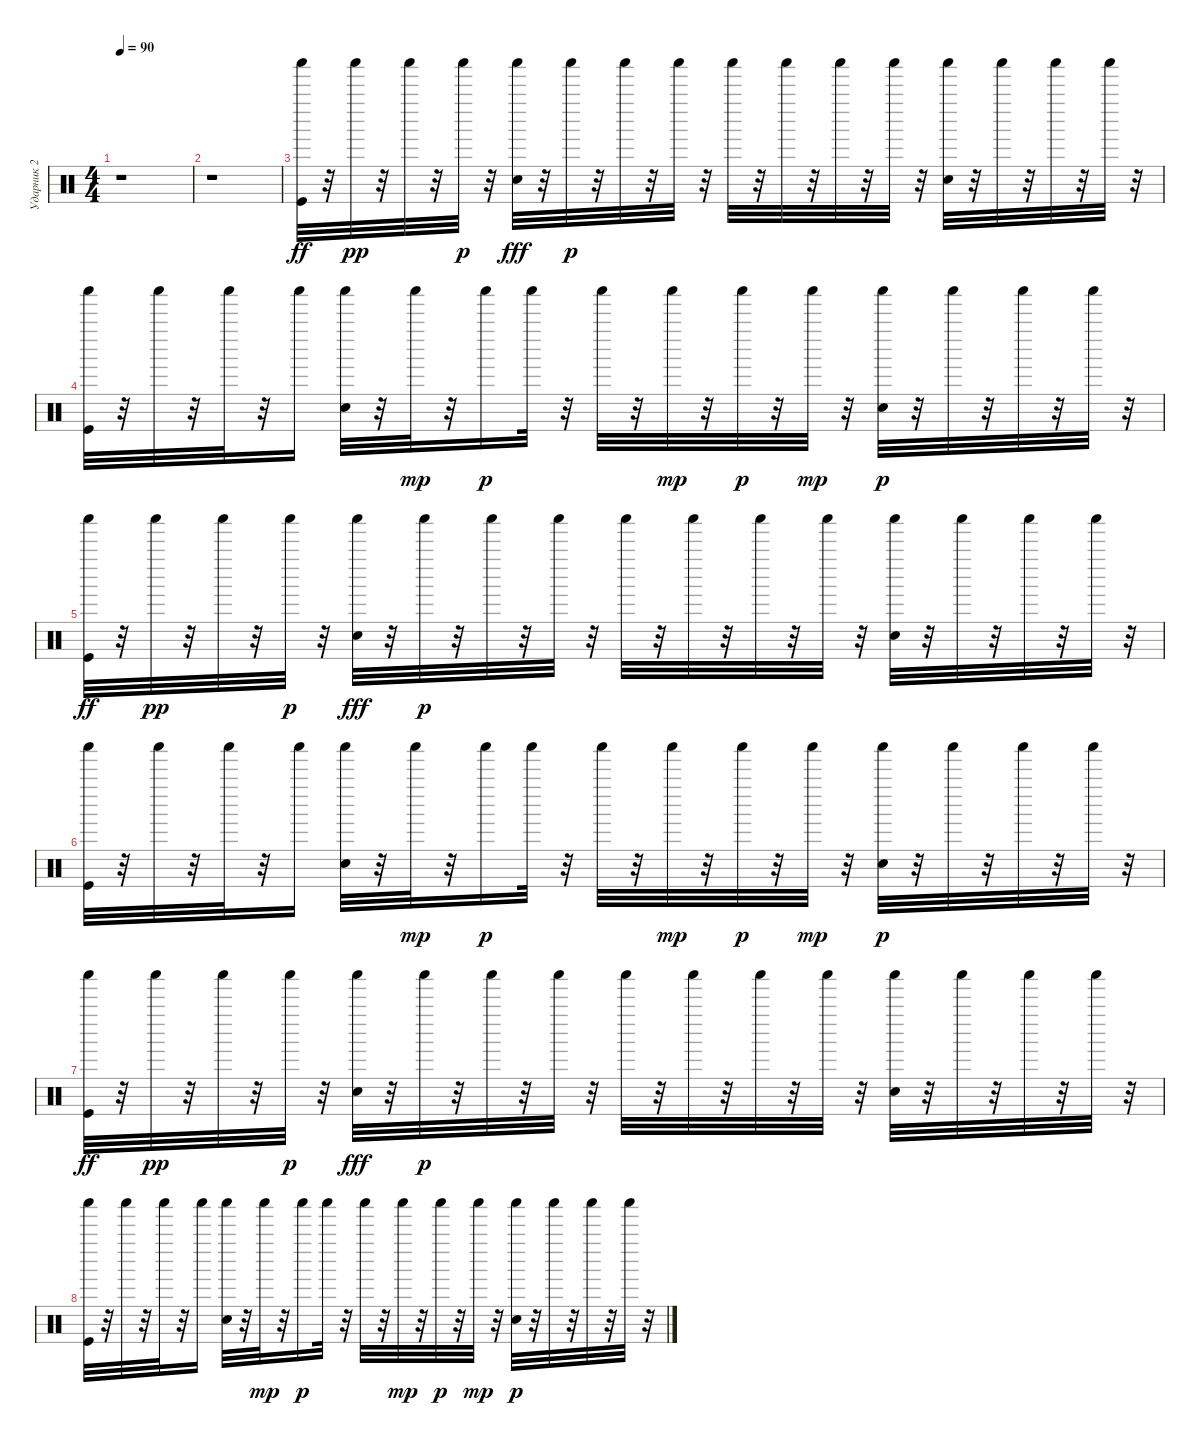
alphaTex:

\track ("Ударник 2" "Ударник 2") {instrument percussion}
\staff {score}
\articulation defaults
\ts (4 4)
\tempo 90
\clef neutral
\ks c
r.1{dy ff} |
r.1 |
("Shaker (hit)" "Kick (hit)").32 r.32 "Shaker (hit)".32{dy pp} r.32 "Shaker (hit)".32 r.32 "Shaker (hit)".32{dy p} r.32 ("Shaker (hit)" "Electric Snare (hit)").32{dy fff} r.32 "Shaker (hit)".32{dy p} r.32 "Shaker (hit)".32 r.32 "Shaker (hit)".32 r.32 "Shaker (hit)".32 r.32 "Shaker (hit)".32 r.32 "Shaker (hit)".32 r.32 "Shaker (hit)".32 r.32 ("Electric Snare (hit)" "Shaker (hit)").32 r.32 "Shaker (hit)".32 r.32 "Shaker (hit)".32 r.32 "Shaker (hit)".32 r.32 |
("Kick (hit)" "Shaker (hit)").32 r.32 "Shaker (hit)".32 r.32 "Shaker (hit)".32 r.32 "Shaker (hit)".16 ("Electric Snare (hit)" "Shaker (hit)").32 r.32 "Shaker (hit)".32{dy mp} r.32 "Shaker (hit)".16{dy p} "Shaker (hit)".32 r.32 "Shaker (hit)".32 r.32 "Shaker (hit)".32{dy mp} r.32 "Shaker (hit)".32{dy p} r.32 "Shaker (hit)".32{dy mp} r.32 ("Electric Snare (hit)" "Shaker (hit)").32{dy p} r.32 "Shaker (hit)".32 r.32 "Shaker (hit)".32 r.32 "Shaker (hit)".32 r.32 |
("Shaker (hit)" "Kick (hit)").32{dy ff} r.32 "Shaker (hit)".32{dy pp} r.32 "Shaker (hit)".32 r.32 "Shaker (hit)".32{dy p} r.32 ("Shaker (hit)" "Electric Snare (hit)").32{dy fff} r.32 "Shaker (hit)".32{dy p} r.32 "Shaker (hit)".32 r.32 "Shaker (hit)".32 r.32 "Shaker (hit)".32 r.32 "Shaker (hit)".32 r.32 "Shaker (hit)".32 r.32 "Shaker (hit)".32 r.32 ("Electric Snare (hit)" "Shaker (hit)").32 r.32 "Shaker (hit)".32 r.32 "Shaker (hit)".32 r.32 "Shaker (hit)".32 r.32 |
("Kick (hit)" "Shaker (hit)").32 r.32 "Shaker (hit)".32 r.32 "Shaker (hit)".32 r.32 "Shaker (hit)".16 ("Electric Snare (hit)" "Shaker (hit)").32 r.32 "Shaker (hit)".32{dy mp} r.32 "Shaker (hit)".16{dy p} "Shaker (hit)".32 r.32 "Shaker (hit)".32 r.32 "Shaker (hit)".32{dy mp} r.32 "Shaker (hit)".32{dy p} r.32 "Shaker (hit)".32{dy mp} r.32 ("Electric Snare (hit)" "Shaker (hit)").32{dy p} r.32 "Shaker (hit)".32 r.32 "Shaker (hit)".32 r.32 "Shaker (hit)".32 r.32 |
("Shaker (hit)" "Kick (hit)").32{dy ff} r.32 "Shaker (hit)".32{dy pp} r.32 "Shaker (hit)".32 r.32 "Shaker (hit)".32{dy p} r.32 ("Shaker (hit)" "Electric Snare (hit)").32{dy fff} r.32 "Shaker (hit)".32{dy p} r.32 "Shaker (hit)".32 r.32 "Shaker (hit)".32 r.32 "Shaker (hit)".32 r.32 "Shaker (hit)".32 r.32 "Shaker (hit)".32 r.32 "Shaker (hit)".32 r.32 ("Electric Snare (hit)" "Shaker (hit)").32 r.32 "Shaker (hit)".32 r.32 "Shaker (hit)".32 r.32 "Shaker (hit)".32 r.32 |
("Kick (hit)" "Shaker (hit)").32 r.32 "Shaker (hit)".32 r.32 "Shaker (hit)".32 r.32 "Shaker (hit)".16 ("Electric Snare (hit)" "Shaker (hit)").32 r.32 "Shaker (hit)".32{dy mp} r.32 "Shaker (hit)".16{dy p} "Shaker (hit)".32 r.32 "Shaker (hit)".32 r.32 "Shaker (hit)".32{dy mp} r.32 "Shaker (hit)".32{dy p} r.32 "Shaker (hit)".32{dy mp} r.32 ("Electric Snare (hit)" "Shaker (hit)").32{dy p} r.32 "Shaker (hit)".32 r.32 "Shaker (hit)".32 r.32 "Shaker (hit)".32 r.32
